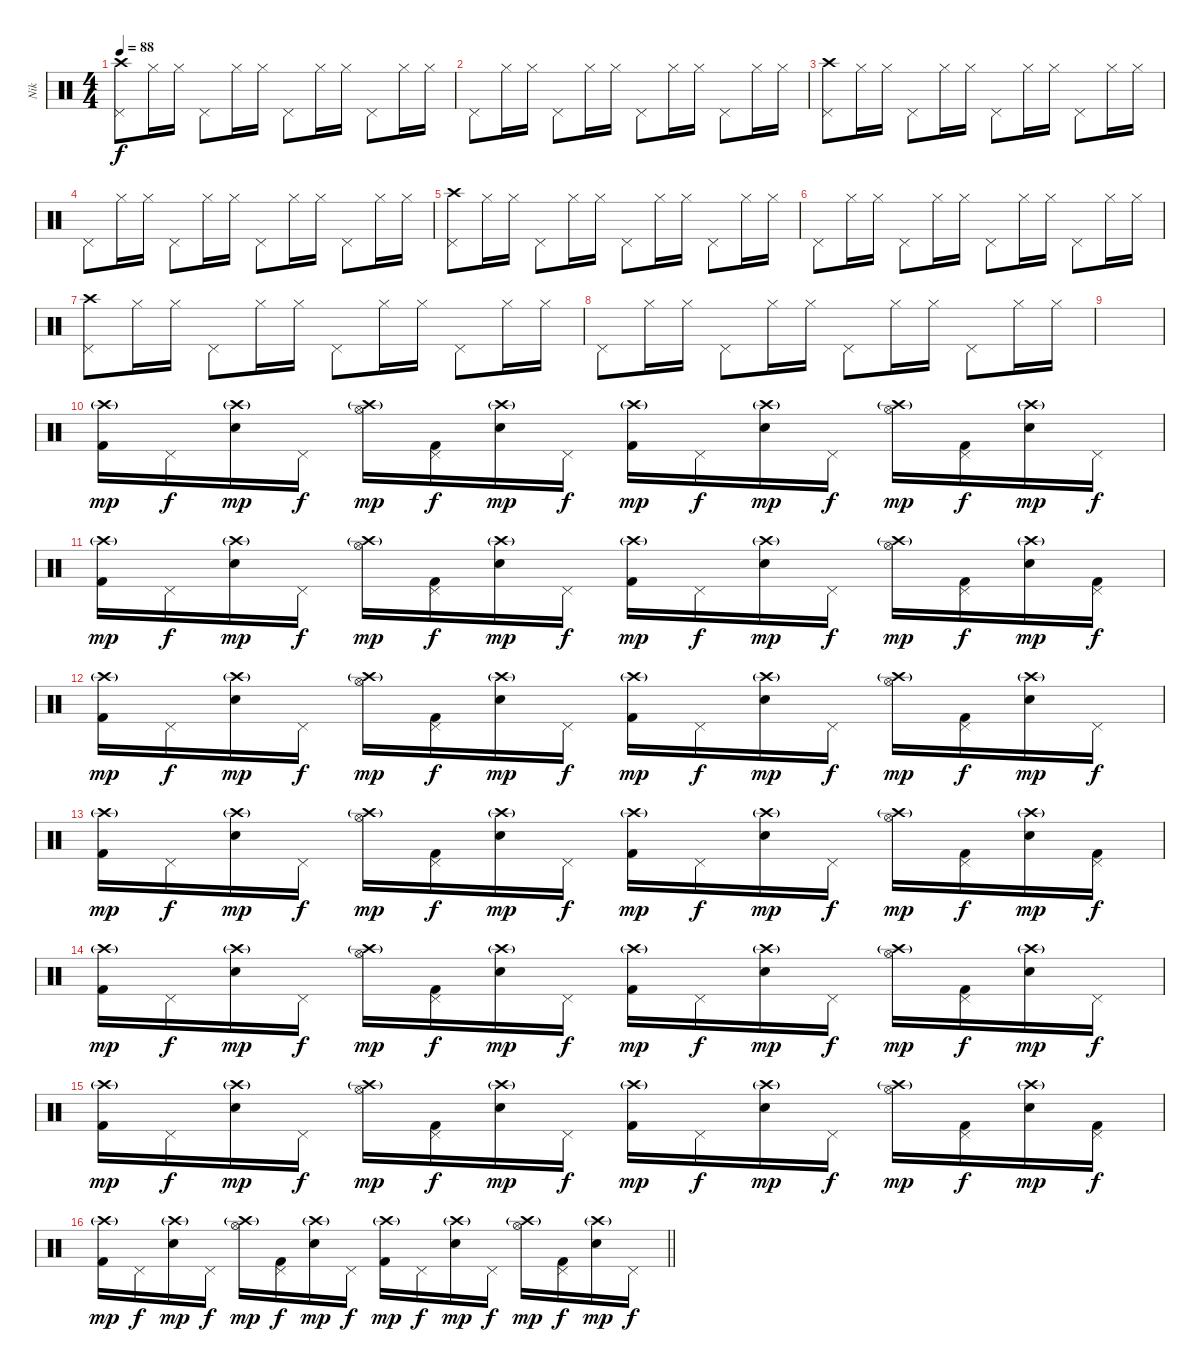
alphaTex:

\track ("Nik" "Nik") {solo instrument percussion}
\staff {score}
\articulation defaults
\ts (4 4)
\tempo 88
\clef neutral
\ks c
("Crash high (hit)" "Pedal Hi-Hat (hit)").8{dy f} "Hi-Hat (closed)".16 "Hi-Hat (closed)".16 "Pedal Hi-Hat (hit)".8 "Hi-Hat (closed)".16 "Hi-Hat (closed)".16 "Pedal Hi-Hat (hit)".8 "Hi-Hat (closed)".16 "Hi-Hat (closed)".16 "Pedal Hi-Hat (hit)".8 "Hi-Hat (closed)".16 "Hi-Hat (closed)".16 |
"Pedal Hi-Hat (hit)".8 "Hi-Hat (closed)".16 "Hi-Hat (closed)".16 "Pedal Hi-Hat (hit)".8 "Hi-Hat (closed)".16 "Hi-Hat (closed)".16 "Pedal Hi-Hat (hit)".8 "Hi-Hat (closed)".16 "Hi-Hat (closed)".16 "Pedal Hi-Hat (hit)".8 "Hi-Hat (closed)".16 "Hi-Hat (closed)".16 |
("Crash high (hit)" "Pedal Hi-Hat (hit)").8 "Hi-Hat (closed)".16 "Hi-Hat (closed)".16 "Pedal Hi-Hat (hit)".8 "Hi-Hat (closed)".16 "Hi-Hat (closed)".16 "Pedal Hi-Hat (hit)".8 "Hi-Hat (closed)".16 "Hi-Hat (closed)".16 "Pedal Hi-Hat (hit)".8 "Hi-Hat (closed)".16 "Hi-Hat (closed)".16 |
"Pedal Hi-Hat (hit)".8 "Hi-Hat (closed)".16 "Hi-Hat (closed)".16 "Pedal Hi-Hat (hit)".8 "Hi-Hat (closed)".16 "Hi-Hat (closed)".16 "Pedal Hi-Hat (hit)".8 "Hi-Hat (closed)".16 "Hi-Hat (closed)".16 "Pedal Hi-Hat (hit)".8 "Hi-Hat (closed)".16 "Hi-Hat (closed)".16 |
("Crash high (hit)" "Pedal Hi-Hat (hit)").8 "Hi-Hat (closed)".16 "Hi-Hat (closed)".16 "Pedal Hi-Hat (hit)".8 "Hi-Hat (closed)".16 "Hi-Hat (closed)".16 "Pedal Hi-Hat (hit)".8 "Hi-Hat (closed)".16 "Hi-Hat (closed)".16 "Pedal Hi-Hat (hit)".8 "Hi-Hat (closed)".16 "Hi-Hat (closed)".16 |
"Pedal Hi-Hat (hit)".8 "Hi-Hat (closed)".16 "Hi-Hat (closed)".16 "Pedal Hi-Hat (hit)".8 "Hi-Hat (closed)".16 "Hi-Hat (closed)".16 "Pedal Hi-Hat (hit)".8 "Hi-Hat (closed)".16 "Hi-Hat (closed)".16 "Pedal Hi-Hat (hit)".8 "Hi-Hat (closed)".16 "Hi-Hat (closed)".16 |
("Crash high (hit)" "Pedal Hi-Hat (hit)").8 "Hi-Hat (closed)".16 "Hi-Hat (closed)".16 "Pedal Hi-Hat (hit)".8 "Hi-Hat (closed)".16 "Hi-Hat (closed)".16 "Pedal Hi-Hat (hit)".8 "Hi-Hat (closed)".16 "Hi-Hat (closed)".16 "Pedal Hi-Hat (hit)".8 "Hi-Hat (closed)".16 "Hi-Hat (closed)".16 |
"Pedal Hi-Hat (hit)".8 "Hi-Hat (closed)".16 "Hi-Hat (closed)".16 "Pedal Hi-Hat (hit)".8 "Hi-Hat (closed)".16 "Hi-Hat (closed)".16 "Pedal Hi-Hat (hit)".8 "Hi-Hat (closed)".16 "Hi-Hat (closed)".16 "Pedal Hi-Hat (hit)".8 "Hi-Hat (closed)".16 "Hi-Hat (closed)".16 |
|
("Crash high (hit)"{g} "Kick (hit) 2").16{dy mp} "Pedal Hi-Hat (hit)".16{dy f} ("Crash high (hit)"{g} "Snare (hit) 2").16{dy mp} "Pedal Hi-Hat (hit)".16{dy f} ("Crash high (hit)"{g} "Hi-Hat (open)").16{dy mp} ("Pedal Hi-Hat (hit)" "Kick (hit) 2").16{dy f} ("Crash high (hit)"{g} "Snare (hit) 2").16{dy mp} "Pedal Hi-Hat (hit)".16{dy f} ("Crash high (hit)"{g} "Kick (hit) 2").16{dy mp} "Pedal Hi-Hat (hit)".16{dy f} ("Crash high (hit)"{g} "Snare (hit) 2").16{dy mp} "Pedal Hi-Hat (hit)".16{dy f} ("Crash high (hit)"{g} "Hi-Hat (open)").16{dy mp} ("Pedal Hi-Hat (hit)" "Kick (hit) 2").16{dy f} ("Crash high (hit)"{g} "Snare (hit) 2").16{dy mp} "Pedal Hi-Hat (hit)".16{dy f} |
("Crash high (hit)"{g} "Kick (hit) 2").16{dy mp} "Pedal Hi-Hat (hit)".16{dy f} ("Crash high (hit)"{g} "Snare (hit) 2").16{dy mp} "Pedal Hi-Hat (hit)".16{dy f} ("Crash high (hit)"{g} "Hi-Hat (open)").16{dy mp} ("Pedal Hi-Hat (hit)" "Kick (hit) 2").16{dy f} ("Crash high (hit)"{g} "Snare (hit) 2").16{dy mp} "Pedal Hi-Hat (hit)".16{dy f} ("Crash high (hit)"{g} "Kick (hit) 2").16{dy mp} "Pedal Hi-Hat (hit)".16{dy f} ("Crash high (hit)"{g} "Snare (hit) 2").16{dy mp} "Pedal Hi-Hat (hit)".16{dy f} ("Crash high (hit)"{g} "Hi-Hat (open)").16{dy mp} ("Pedal Hi-Hat (hit)" "Kick (hit) 2").16{dy f} ("Crash high (hit)"{g} "Snare (hit) 2").16{dy mp} ("Pedal Hi-Hat (hit)" "Kick (hit) 2").16{dy f} |
("Crash high (hit)"{g} "Kick (hit) 2").16{dy mp} "Pedal Hi-Hat (hit)".16{dy f} ("Crash high (hit)"{g} "Snare (hit) 2").16{dy mp} "Pedal Hi-Hat (hit)".16{dy f} ("Crash high (hit)"{g} "Hi-Hat (open)").16{dy mp} ("Pedal Hi-Hat (hit)" "Kick (hit) 2").16{dy f} ("Crash high (hit)"{g} "Snare (hit) 2").16{dy mp} "Pedal Hi-Hat (hit)".16{dy f} ("Crash high (hit)"{g} "Kick (hit) 2").16{dy mp} "Pedal Hi-Hat (hit)".16{dy f} ("Crash high (hit)"{g} "Snare (hit) 2").16{dy mp} "Pedal Hi-Hat (hit)".16{dy f} ("Crash high (hit)"{g} "Hi-Hat (open)").16{dy mp} ("Pedal Hi-Hat (hit)" "Kick (hit) 2").16{dy f} ("Crash high (hit)"{g} "Snare (hit) 2").16{dy mp} "Pedal Hi-Hat (hit)".16{dy f} |
("Crash high (hit)"{g} "Kick (hit) 2").16{dy mp} "Pedal Hi-Hat (hit)".16{dy f} ("Crash high (hit)"{g} "Snare (hit) 2").16{dy mp} "Pedal Hi-Hat (hit)".16{dy f} ("Crash high (hit)"{g} "Hi-Hat (open)").16{dy mp} ("Pedal Hi-Hat (hit)" "Kick (hit) 2").16{dy f} ("Crash high (hit)"{g} "Snare (hit) 2").16{dy mp} "Pedal Hi-Hat (hit)".16{dy f} ("Crash high (hit)"{g} "Kick (hit) 2").16{dy mp} "Pedal Hi-Hat (hit)".16{dy f} ("Crash high (hit)"{g} "Snare (hit) 2").16{dy mp} "Pedal Hi-Hat (hit)".16{dy f} ("Crash high (hit)"{g} "Hi-Hat (open)").16{dy mp} ("Pedal Hi-Hat (hit)" "Kick (hit) 2").16{dy f} ("Crash high (hit)"{g} "Snare (hit) 2").16{dy mp} ("Pedal Hi-Hat (hit)" "Kick (hit) 2").16{dy f} |
("Crash high (hit)"{g} "Kick (hit) 2").16{dy mp} "Pedal Hi-Hat (hit)".16{dy f} ("Crash high (hit)"{g} "Snare (hit) 2").16{dy mp} "Pedal Hi-Hat (hit)".16{dy f} ("Crash high (hit)"{g} "Hi-Hat (open)").16{dy mp} ("Pedal Hi-Hat (hit)" "Kick (hit) 2").16{dy f} ("Crash high (hit)"{g} "Snare (hit) 2").16{dy mp} "Pedal Hi-Hat (hit)".16{dy f} ("Crash high (hit)"{g} "Kick (hit) 2").16{dy mp} "Pedal Hi-Hat (hit)".16{dy f} ("Crash high (hit)"{g} "Snare (hit) 2").16{dy mp} "Pedal Hi-Hat (hit)".16{dy f} ("Crash high (hit)"{g} "Hi-Hat (open)").16{dy mp} ("Pedal Hi-Hat (hit)" "Kick (hit) 2").16{dy f} ("Crash high (hit)"{g} "Snare (hit) 2").16{dy mp} "Pedal Hi-Hat (hit)".16{dy f} |
("Crash high (hit)"{g} "Kick (hit) 2").16{dy mp} "Pedal Hi-Hat (hit)".16{dy f} ("Crash high (hit)"{g} "Snare (hit) 2").16{dy mp} "Pedal Hi-Hat (hit)".16{dy f} ("Crash high (hit)"{g} "Hi-Hat (open)").16{dy mp} ("Pedal Hi-Hat (hit)" "Kick (hit) 2").16{dy f} ("Crash high (hit)"{g} "Snare (hit) 2").16{dy mp} "Pedal Hi-Hat (hit)".16{dy f} ("Crash high (hit)"{g} "Kick (hit) 2").16{dy mp} "Pedal Hi-Hat (hit)".16{dy f} ("Crash high (hit)"{g} "Snare (hit) 2").16{dy mp} "Pedal Hi-Hat (hit)".16{dy f} ("Crash high (hit)"{g} "Hi-Hat (open)").16{dy mp} ("Pedal Hi-Hat (hit)" "Kick (hit) 2").16{dy f} ("Crash high (hit)"{g} "Snare (hit) 2").16{dy mp} ("Pedal Hi-Hat (hit)" "Kick (hit) 2").16{dy f} |
\barLineRight lightlight
("Crash high (hit)"{g} "Kick (hit) 2").16{dy mp} "Pedal Hi-Hat (hit)".16{dy f} ("Crash high (hit)"{g} "Snare (hit) 2").16{dy mp} "Pedal Hi-Hat (hit)".16{dy f} ("Crash high (hit)"{g} "Hi-Hat (open)").16{dy mp} ("Pedal Hi-Hat (hit)" "Kick (hit) 2").16{dy f} ("Crash high (hit)"{g} "Snare (hit) 2").16{dy mp} "Pedal Hi-Hat (hit)".16{dy f} ("Crash high (hit)"{g} "Kick (hit) 2").16{dy mp} "Pedal Hi-Hat (hit)".16{dy f} ("Crash high (hit)"{g} "Snare (hit) 2").16{dy mp} "Pedal Hi-Hat (hit)".16{dy f} ("Crash high (hit)"{g} "Hi-Hat (open)").16{dy mp} ("Pedal Hi-Hat (hit)" "Kick (hit) 2").16{dy f} ("Crash high (hit)"{g} "Snare (hit) 2").16{dy mp} "Pedal Hi-Hat (hit)".16{dy f}
